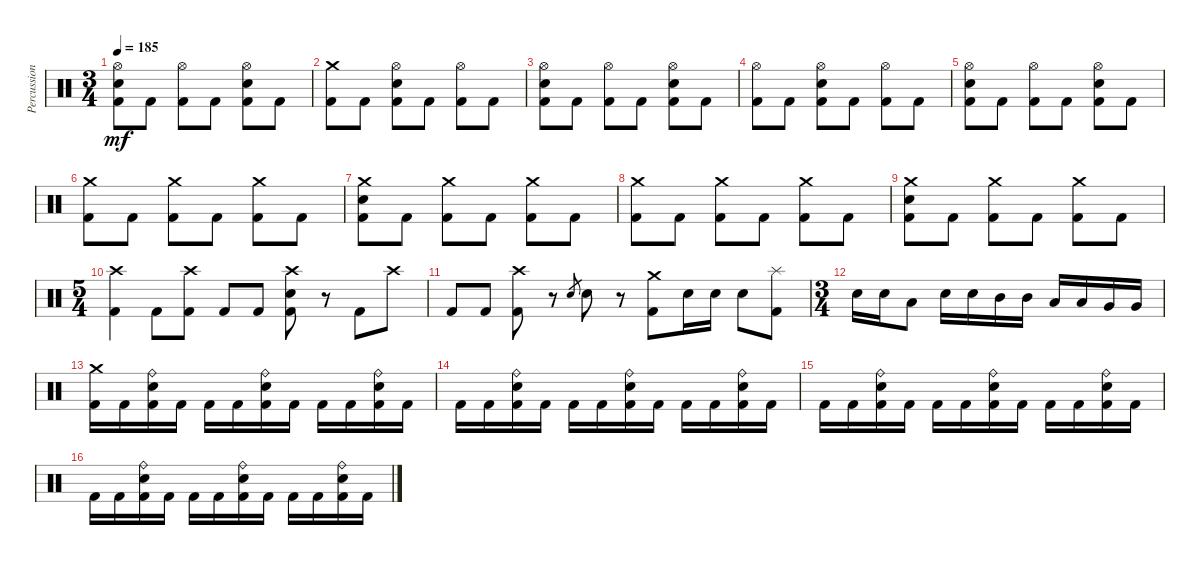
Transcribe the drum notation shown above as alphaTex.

\track ("Percussion" "Percussion") {instrument percussion}
\staff {score}
\articulation defaults
\ts (3 4)
\tempo 185
\clef neutral
\ks c
("Hi-Hat (open)" "Electric Snare (hit)" "Kick (hit) 2").8{dy mf} "Kick (hit) 2".8 ("Hi-Hat (open)" "Kick (hit) 2").8 "Kick (hit) 2".8 ("Hi-Hat (open)" "Electric Snare (hit)" "Kick (hit) 2").8 "Kick (hit) 2".8 |
("Crash medium (hit)" "Kick (hit) 2").8 "Kick (hit) 2".8 ("Hi-Hat (open)" "Electric Snare (hit)" "Kick (hit) 2").8 "Kick (hit) 2".8 ("Hi-Hat (open)" "Kick (hit) 2").8 "Kick (hit) 2".8 |
("Hi-Hat (open)" "Electric Snare (hit)" "Kick (hit) 2").8 "Kick (hit) 2".8 ("Hi-Hat (open)" "Kick (hit) 2").8 "Kick (hit) 2".8 ("Hi-Hat (open)" "Electric Snare (hit)" "Kick (hit) 2").8 "Kick (hit) 2".8 |
("Hi-Hat (open)" "Kick (hit) 2").8 "Kick (hit) 2".8 ("Hi-Hat (open)" "Electric Snare (hit)" "Kick (hit) 2").8 "Kick (hit) 2".8 ("Hi-Hat (open)" "Kick (hit) 2").8 "Kick (hit) 2".8 |
("Hi-Hat (open)" "Electric Snare (hit)" "Kick (hit) 2").8 "Kick (hit) 2".8 ("Hi-Hat (open)" "Kick (hit) 2").8 "Kick (hit) 2".8 ("Hi-Hat (open)" "Electric Snare (hit)" "Kick (hit) 2").8 "Kick (hit) 2".8 |
("Crash medium (hit)" "Kick (hit) 2").8 "Kick (hit) 2".8 ("Crash medium (hit)" "Kick (hit) 2").8 "Kick (hit) 2".8 ("Crash medium (hit)" "Kick (hit) 2").8 "Kick (hit) 2".8 |
("Crash medium (hit)" "Electric Snare (hit)" "Kick (hit) 2").8 "Kick (hit) 2".8 ("Crash medium (hit)" "Kick (hit) 2").8 "Kick (hit) 2".8 ("Crash medium (hit)" "Kick (hit) 2").8 "Kick (hit) 2".8 |
("Crash medium (hit)" "Kick (hit) 2").8 "Kick (hit) 2".8 ("Crash medium (hit)" "Kick (hit) 2").8 "Kick (hit) 2".8 ("Crash medium (hit)" "Kick (hit) 2").8 "Kick (hit) 2".8 |
("Crash medium (hit)" "Electric Snare (hit)" "Kick (hit) 2").8 "Kick (hit) 2".8 ("Crash medium (hit)" "Kick (hit) 2").8 "Kick (hit) 2".8 ("Crash medium (hit)" "Kick (hit) 2").8 "Kick (hit) 2".8 |
\ts (5 4)
("Crash high (hit)" "Kick (hit) 2").4 "Kick (hit) 2".8 ("Crash high (hit)" "Kick (hit) 2").8 "Kick (hit) 2".8 "Kick (hit) 2".8 ("Crash high (hit)" "Electric Snare (hit)" "Kick (hit) 2").8 r.8 "Kick (hit) 2".8 "Crash high (hit)".8 |
"Kick (hit) 2".8 "Kick (hit) 2".8 ("Crash high (hit)" "Kick (hit) 2").8 r.8 "Electric Snare (hit)".8{gr} "Electric Snare (hit)".8 r.8 ("Crash medium (hit)" "Kick (hit) 2").8 "Electric Snare (hit)".16 "Electric Snare (hit)".16 "Electric Snare (hit)".8 ("Splash (hit)" "Kick (hit) 2").8 |
\ts (3 4)
"Electric Snare (hit)".16 "Electric Snare (hit)".16 "Low Tom (hit)".8 "Electric Snare (hit)".16 "Electric Snare (hit)".16 "Mid Tom (hit)".16 "Mid Tom (hit)".16 "Low Tom (hit)".16 "Low Tom (hit)".16 "Very Low Tom (hit)".16 "Very Low Tom (hit)".16 |
("Crash medium (hit)" "Kick (hit) 2").16 "Kick (hit) 2".16 ("Ride (bell)" "Electric Snare (hit)" "Kick (hit) 2").16 "Kick (hit) 2".16 "Kick (hit) 2".16 "Kick (hit) 2".16 ("Ride (bell)" "Electric Snare (hit)" "Kick (hit) 2").16 "Kick (hit) 2".16 "Kick (hit) 2".16 "Kick (hit) 2".16 ("Ride (bell)" "Electric Snare (hit)" "Kick (hit) 2").16 "Kick (hit) 2".16 |
"Kick (hit) 2".16 "Kick (hit) 2".16 ("Ride (bell)" "Electric Snare (hit)" "Kick (hit) 2").16 "Kick (hit) 2".16 "Kick (hit) 2".16 "Kick (hit) 2".16 ("Ride (bell)" "Electric Snare (hit)" "Kick (hit) 2").16 "Kick (hit) 2".16 "Kick (hit) 2".16 "Kick (hit) 2".16 ("Ride (bell)" "Electric Snare (hit)" "Kick (hit) 2").16 "Kick (hit) 2".16 |
"Kick (hit) 2".16 "Kick (hit) 2".16 ("Ride (bell)" "Electric Snare (hit)" "Kick (hit) 2").16 "Kick (hit) 2".16 "Kick (hit) 2".16 "Kick (hit) 2".16 ("Ride (bell)" "Electric Snare (hit)" "Kick (hit) 2").16 "Kick (hit) 2".16 "Kick (hit) 2".16 "Kick (hit) 2".16 ("Ride (bell)" "Electric Snare (hit)" "Kick (hit) 2").16 "Kick (hit) 2".16 |
"Kick (hit) 2".16 "Kick (hit) 2".16 ("Ride (bell)" "Electric Snare (hit)" "Kick (hit) 2").16 "Kick (hit) 2".16 "Kick (hit) 2".16 "Kick (hit) 2".16 ("Ride (bell)" "Electric Snare (hit)" "Kick (hit) 2").16 "Kick (hit) 2".16 "Kick (hit) 2".16 "Kick (hit) 2".16 ("Ride (bell)" "Electric Snare (hit)" "Kick (hit) 2").16 "Kick (hit) 2".16
